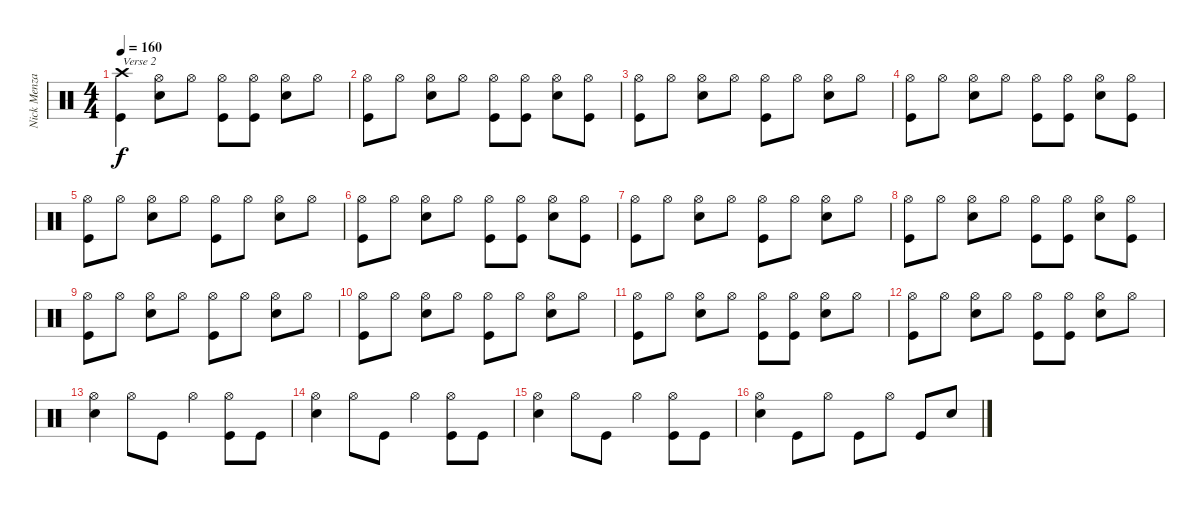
\track ("Nick Menza" "Nick Menza") {instrument percussion}
\staff {score}
\articulation defaults
\ts (4 4)
\tempo 160
\clef neutral
\ks c
("Crash high (hit)" "Kick (hit)").4{txt "Verse 2" dy f} ("Hi-Hat (open)" "Snare (hit) 2").8 "Hi-Hat (open)".8 ("Hi-Hat (open)" "Kick (hit)").8 ("Hi-Hat (open)" "Kick (hit)").8 ("Hi-Hat (open)" "Snare (hit) 2").8 "Hi-Hat (open)".8 |
("Hi-Hat (open)" "Kick (hit)").8 "Hi-Hat (open)".8 ("Hi-Hat (open)" "Snare (hit) 2").8 "Hi-Hat (open)".8 ("Hi-Hat (open)" "Kick (hit)").8 ("Hi-Hat (open)" "Kick (hit)").8 ("Hi-Hat (open)" "Snare (hit) 2").8 ("Hi-Hat (open)" "Kick (hit)").8 |
("Hi-Hat (open)" "Kick (hit)").8 "Hi-Hat (open)".8 ("Hi-Hat (open)" "Snare (hit) 2").8 "Hi-Hat (open)".8 ("Hi-Hat (open)" "Kick (hit)").8 "Hi-Hat (open)".8 ("Hi-Hat (open)" "Snare (hit) 2").8 "Hi-Hat (open)".8 |
("Hi-Hat (open)" "Kick (hit)").8 "Hi-Hat (open)".8 ("Hi-Hat (open)" "Snare (hit) 2").8 "Hi-Hat (open)".8 ("Hi-Hat (open)" "Kick (hit)").8 ("Hi-Hat (open)" "Kick (hit)").8 ("Hi-Hat (open)" "Snare (hit) 2").8 ("Hi-Hat (open)" "Kick (hit)").8 |
("Hi-Hat (open)" "Kick (hit)").8 "Hi-Hat (open)".8 ("Hi-Hat (open)" "Snare (hit) 2").8 "Hi-Hat (open)".8 ("Hi-Hat (open)" "Kick (hit)").8 "Hi-Hat (open)".8 ("Hi-Hat (open)" "Snare (hit) 2").8 "Hi-Hat (open)".8 |
("Hi-Hat (open)" "Kick (hit)").8 "Hi-Hat (open)".8 ("Hi-Hat (open)" "Snare (hit) 2").8 "Hi-Hat (open)".8 ("Hi-Hat (open)" "Kick (hit)").8 ("Hi-Hat (open)" "Kick (hit)").8 ("Hi-Hat (open)" "Snare (hit) 2").8 ("Hi-Hat (open)" "Kick (hit)").8 |
("Hi-Hat (open)" "Kick (hit)").8 "Hi-Hat (open)".8 ("Hi-Hat (open)" "Snare (hit) 2").8 "Hi-Hat (open)".8 ("Hi-Hat (open)" "Kick (hit)").8 "Hi-Hat (open)".8 ("Hi-Hat (open)" "Snare (hit) 2").8 "Hi-Hat (open)".8 |
("Hi-Hat (open)" "Kick (hit)").8 "Hi-Hat (open)".8 ("Hi-Hat (open)" "Snare (hit) 2").8 "Hi-Hat (open)".8 ("Hi-Hat (open)" "Kick (hit)").8 ("Hi-Hat (open)" "Kick (hit)").8 ("Hi-Hat (open)" "Snare (hit) 2").8 ("Hi-Hat (open)" "Kick (hit)").8 |
("Hi-Hat (open)" "Kick (hit)").8 "Hi-Hat (open)".8 ("Hi-Hat (open)" "Snare (hit) 2").8 "Hi-Hat (open)".8 ("Hi-Hat (open)" "Kick (hit)").8 "Hi-Hat (open)".8 ("Hi-Hat (open)" "Snare (hit) 2").8 "Hi-Hat (open)".8 |
("Hi-Hat (open)" "Kick (hit)").8 "Hi-Hat (open)".8 ("Hi-Hat (open)" "Snare (hit) 2").8 "Hi-Hat (open)".8 ("Hi-Hat (open)" "Kick (hit)").8 "Hi-Hat (open)".8 ("Hi-Hat (open)" "Snare (hit) 2").8 "Hi-Hat (open)".8 |
("Hi-Hat (open)" "Kick (hit)").8 "Hi-Hat (open)".8 ("Hi-Hat (open)" "Snare (hit) 2").8 "Hi-Hat (open)".8 ("Hi-Hat (open)" "Kick (hit)").8 ("Hi-Hat (open)" "Kick (hit)").8 ("Hi-Hat (open)" "Snare (hit) 2").8 "Hi-Hat (open)".8 |
("Hi-Hat (open)" "Kick (hit)").8 "Hi-Hat (open)".8 ("Hi-Hat (open)" "Snare (hit) 2").8 "Hi-Hat (open)".8 ("Hi-Hat (open)" "Kick (hit)").8 ("Hi-Hat (open)" "Kick (hit)").8 ("Hi-Hat (open)" "Snare (hit) 2").8 "Hi-Hat (open)".8 |
("Hi-Hat (open)" "Snare (hit) 2").4 "Hi-Hat (open)".8 "Kick (hit)".8 "Hi-Hat (open)".4 ("Hi-Hat (open)" "Kick (hit)").8 "Kick (hit)".8 |
("Hi-Hat (open)" "Snare (hit) 2").4 "Hi-Hat (open)".8 "Kick (hit)".8 "Hi-Hat (open)".4 ("Hi-Hat (open)" "Kick (hit)").8 "Kick (hit)".8 |
("Hi-Hat (open)" "Snare (hit) 2").4 "Hi-Hat (open)".8 "Kick (hit)".8 "Hi-Hat (open)".4 ("Hi-Hat (open)" "Kick (hit)").8 "Kick (hit)".8 |
("Hi-Hat (open)" "Snare (hit) 2").4 "Kick (hit)".8 "Hi-Hat (open)".8 "Kick (hit)".8 "Hi-Hat (open)".8 "Kick (hit)".8 "Snare (hit) 2".8
